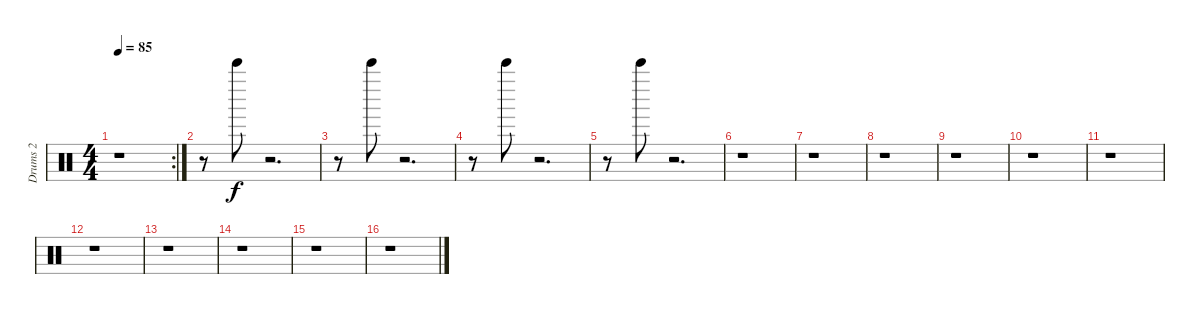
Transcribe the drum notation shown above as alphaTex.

\track ("Drums 2" "Drums 2") {instrument percussion}
\staff {score}
\articulation defaults
\rc 2
\ts (4 4)
\tempo 85
\clef neutral
\ks c
r.1{dy f} |
r.8 "Bell Tree (hit)".8 r.2{d} |
r.8 "Bell Tree (hit)".8 r.2{d} |
r.8 "Bell Tree (hit)".8 r.2{d} |
r.8 "Bell Tree (hit)".8 r.2{d} |
r.1 |
r.1 |
r.1 |
r.1 |
r.1 |
r.1 |
r.1 |
r.1 |
r.1 |
r.1 |
r.1
